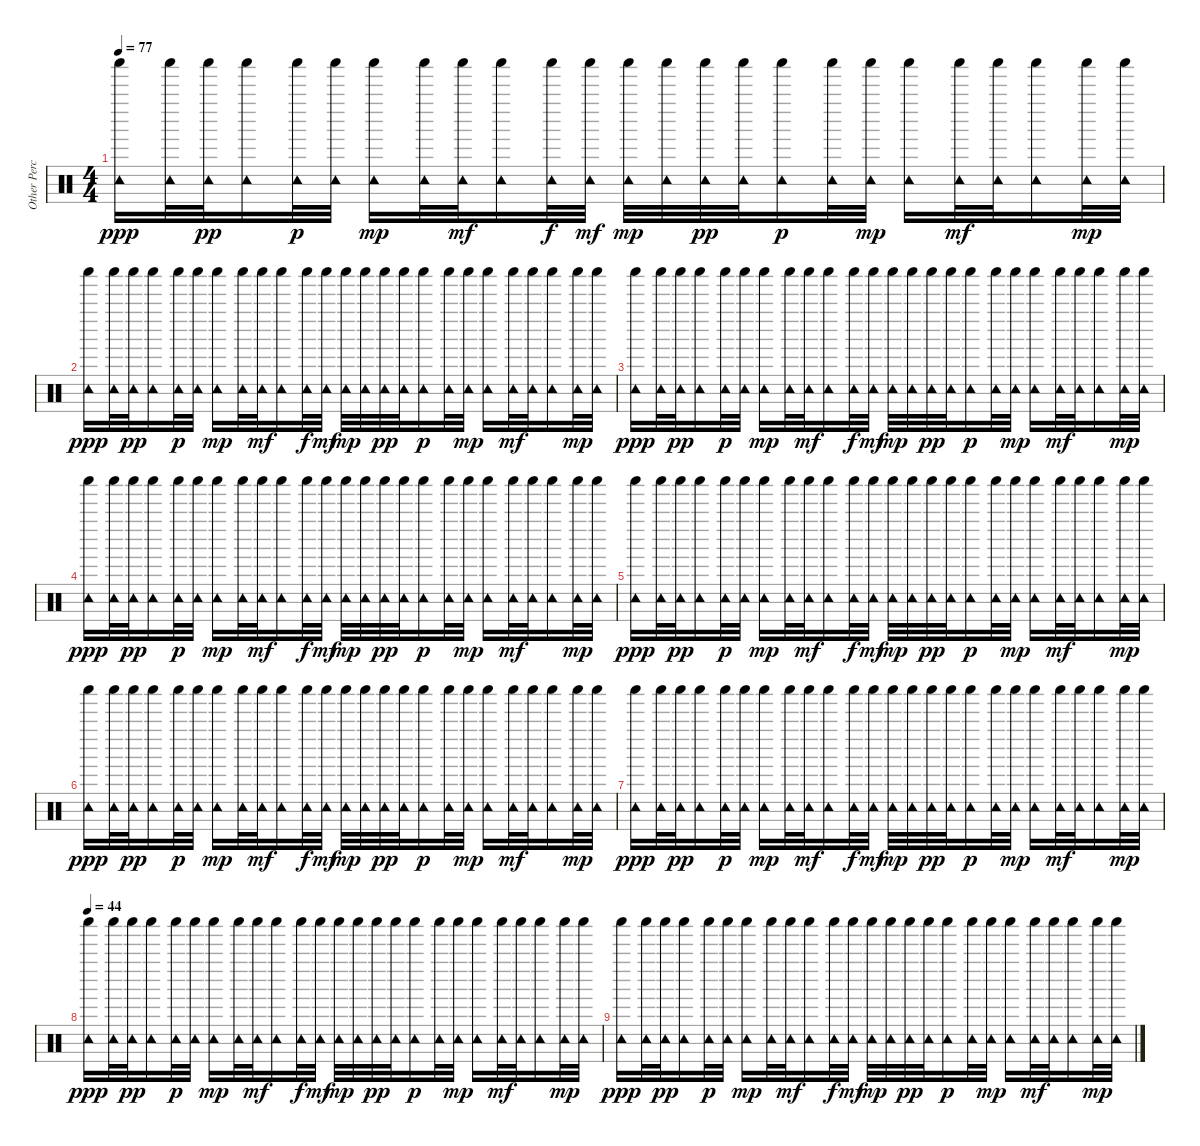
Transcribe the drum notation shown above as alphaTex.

\track ("Other Percussion" "Other Perc") {instrument percussion}
\staff {score}
\articulation defaults
\ts (4 4)
\tempo 77
\clef neutral
\ks c
("Shaker (hit)" "Tambourine (hit)").16{dy ppp} ("Shaker (hit)" "Tambourine (hit)").32 ("Shaker (hit)" "Tambourine (hit)").32{dy pp} ("Shaker (hit)" "Tambourine (hit)").16 ("Shaker (hit)" "Tambourine (hit)").32{dy p} ("Shaker (hit)" "Tambourine (hit)").32 ("Shaker (hit)" "Tambourine (hit)").16{dy mp} ("Shaker (hit)" "Tambourine (hit)").32 ("Shaker (hit)" "Tambourine (hit)").32{dy mf} ("Shaker (hit)" "Tambourine (hit)").16 ("Shaker (hit)" "Tambourine (hit)").32{dy f} ("Shaker (hit)" "Tambourine (hit)").32{dy mf} ("Shaker (hit)" "Tambourine (hit)").32{dy mp} ("Shaker (hit)" "Tambourine (hit)").32 ("Shaker (hit)" "Tambourine (hit)").32{dy pp} ("Shaker (hit)" "Tambourine (hit)").32 ("Shaker (hit)" "Tambourine (hit)").16{dy p} ("Shaker (hit)" "Tambourine (hit)").32 ("Shaker (hit)" "Tambourine (hit)").32{dy mp} ("Shaker (hit)" "Tambourine (hit)").16 ("Shaker (hit)" "Tambourine (hit)").32{dy mf} ("Shaker (hit)" "Tambourine (hit)").32 ("Shaker (hit)" "Tambourine (hit)").16 ("Shaker (hit)" "Tambourine (hit)").32{dy mp} ("Shaker (hit)" "Tambourine (hit)").32 |
("Shaker (hit)" "Tambourine (hit)").16{dy ppp} ("Shaker (hit)" "Tambourine (hit)").32 ("Shaker (hit)" "Tambourine (hit)").32{dy pp} ("Shaker (hit)" "Tambourine (hit)").16 ("Shaker (hit)" "Tambourine (hit)").32{dy p} ("Shaker (hit)" "Tambourine (hit)").32 ("Shaker (hit)" "Tambourine (hit)").16{dy mp} ("Shaker (hit)" "Tambourine (hit)").32 ("Shaker (hit)" "Tambourine (hit)").32{dy mf} ("Shaker (hit)" "Tambourine (hit)").16 ("Shaker (hit)" "Tambourine (hit)").32{dy f} ("Shaker (hit)" "Tambourine (hit)").32{dy mf} ("Shaker (hit)" "Tambourine (hit)").32{dy mp} ("Shaker (hit)" "Tambourine (hit)").32 ("Shaker (hit)" "Tambourine (hit)").32{dy pp} ("Shaker (hit)" "Tambourine (hit)").32 ("Shaker (hit)" "Tambourine (hit)").16{dy p} ("Shaker (hit)" "Tambourine (hit)").32 ("Shaker (hit)" "Tambourine (hit)").32{dy mp} ("Shaker (hit)" "Tambourine (hit)").16 ("Shaker (hit)" "Tambourine (hit)").32{dy mf} ("Shaker (hit)" "Tambourine (hit)").32 ("Shaker (hit)" "Tambourine (hit)").16 ("Shaker (hit)" "Tambourine (hit)").32{dy mp} ("Shaker (hit)" "Tambourine (hit)").32 |
("Shaker (hit)" "Tambourine (hit)").16{dy ppp} ("Shaker (hit)" "Tambourine (hit)").32 ("Shaker (hit)" "Tambourine (hit)").32{dy pp} ("Shaker (hit)" "Tambourine (hit)").16 ("Shaker (hit)" "Tambourine (hit)").32{dy p} ("Shaker (hit)" "Tambourine (hit)").32 ("Shaker (hit)" "Tambourine (hit)").16{dy mp} ("Shaker (hit)" "Tambourine (hit)").32 ("Shaker (hit)" "Tambourine (hit)").32{dy mf} ("Shaker (hit)" "Tambourine (hit)").16 ("Shaker (hit)" "Tambourine (hit)").32{dy f} ("Shaker (hit)" "Tambourine (hit)").32{dy mf} ("Shaker (hit)" "Tambourine (hit)").32{dy mp} ("Shaker (hit)" "Tambourine (hit)").32 ("Shaker (hit)" "Tambourine (hit)").32{dy pp} ("Shaker (hit)" "Tambourine (hit)").32 ("Shaker (hit)" "Tambourine (hit)").16{dy p} ("Shaker (hit)" "Tambourine (hit)").32 ("Shaker (hit)" "Tambourine (hit)").32{dy mp} ("Shaker (hit)" "Tambourine (hit)").16 ("Shaker (hit)" "Tambourine (hit)").32{dy mf} ("Shaker (hit)" "Tambourine (hit)").32 ("Shaker (hit)" "Tambourine (hit)").16 ("Shaker (hit)" "Tambourine (hit)").32{dy mp} ("Shaker (hit)" "Tambourine (hit)").32 |
("Shaker (hit)" "Tambourine (hit)").16{dy ppp} ("Shaker (hit)" "Tambourine (hit)").32 ("Shaker (hit)" "Tambourine (hit)").32{dy pp} ("Shaker (hit)" "Tambourine (hit)").16 ("Shaker (hit)" "Tambourine (hit)").32{dy p} ("Shaker (hit)" "Tambourine (hit)").32 ("Shaker (hit)" "Tambourine (hit)").16{dy mp} ("Shaker (hit)" "Tambourine (hit)").32 ("Shaker (hit)" "Tambourine (hit)").32{dy mf} ("Shaker (hit)" "Tambourine (hit)").16 ("Shaker (hit)" "Tambourine (hit)").32{dy f} ("Shaker (hit)" "Tambourine (hit)").32{dy mf} ("Shaker (hit)" "Tambourine (hit)").32{dy mp} ("Shaker (hit)" "Tambourine (hit)").32 ("Shaker (hit)" "Tambourine (hit)").32{dy pp} ("Shaker (hit)" "Tambourine (hit)").32 ("Shaker (hit)" "Tambourine (hit)").16{dy p} ("Shaker (hit)" "Tambourine (hit)").32 ("Shaker (hit)" "Tambourine (hit)").32{dy mp} ("Shaker (hit)" "Tambourine (hit)").16 ("Shaker (hit)" "Tambourine (hit)").32{dy mf} ("Shaker (hit)" "Tambourine (hit)").32 ("Shaker (hit)" "Tambourine (hit)").16 ("Shaker (hit)" "Tambourine (hit)").32{dy mp} ("Shaker (hit)" "Tambourine (hit)").32 |
("Shaker (hit)" "Tambourine (hit)").16{dy ppp} ("Shaker (hit)" "Tambourine (hit)").32 ("Shaker (hit)" "Tambourine (hit)").32{dy pp} ("Shaker (hit)" "Tambourine (hit)").16 ("Shaker (hit)" "Tambourine (hit)").32{dy p} ("Shaker (hit)" "Tambourine (hit)").32 ("Shaker (hit)" "Tambourine (hit)").16{dy mp} ("Shaker (hit)" "Tambourine (hit)").32 ("Shaker (hit)" "Tambourine (hit)").32{dy mf} ("Shaker (hit)" "Tambourine (hit)").16 ("Shaker (hit)" "Tambourine (hit)").32{dy f} ("Shaker (hit)" "Tambourine (hit)").32{dy mf} ("Shaker (hit)" "Tambourine (hit)").32{dy mp} ("Shaker (hit)" "Tambourine (hit)").32 ("Shaker (hit)" "Tambourine (hit)").32{dy pp} ("Shaker (hit)" "Tambourine (hit)").32 ("Shaker (hit)" "Tambourine (hit)").16{dy p} ("Shaker (hit)" "Tambourine (hit)").32 ("Shaker (hit)" "Tambourine (hit)").32{dy mp} ("Shaker (hit)" "Tambourine (hit)").16 ("Shaker (hit)" "Tambourine (hit)").32{dy mf} ("Shaker (hit)" "Tambourine (hit)").32 ("Shaker (hit)" "Tambourine (hit)").16 ("Shaker (hit)" "Tambourine (hit)").32{dy mp} ("Shaker (hit)" "Tambourine (hit)").32 |
("Shaker (hit)" "Tambourine (hit)").16{dy ppp} ("Shaker (hit)" "Tambourine (hit)").32 ("Shaker (hit)" "Tambourine (hit)").32{dy pp} ("Shaker (hit)" "Tambourine (hit)").16 ("Shaker (hit)" "Tambourine (hit)").32{dy p} ("Shaker (hit)" "Tambourine (hit)").32 ("Shaker (hit)" "Tambourine (hit)").16{dy mp} ("Shaker (hit)" "Tambourine (hit)").32 ("Shaker (hit)" "Tambourine (hit)").32{dy mf} ("Shaker (hit)" "Tambourine (hit)").16 ("Shaker (hit)" "Tambourine (hit)").32{dy f} ("Shaker (hit)" "Tambourine (hit)").32{dy mf} ("Shaker (hit)" "Tambourine (hit)").32{dy mp} ("Shaker (hit)" "Tambourine (hit)").32 ("Shaker (hit)" "Tambourine (hit)").32{dy pp} ("Shaker (hit)" "Tambourine (hit)").32 ("Shaker (hit)" "Tambourine (hit)").16{dy p} ("Shaker (hit)" "Tambourine (hit)").32 ("Shaker (hit)" "Tambourine (hit)").32{dy mp} ("Shaker (hit)" "Tambourine (hit)").16 ("Shaker (hit)" "Tambourine (hit)").32{dy mf} ("Shaker (hit)" "Tambourine (hit)").32 ("Shaker (hit)" "Tambourine (hit)").16 ("Shaker (hit)" "Tambourine (hit)").32{dy mp} ("Shaker (hit)" "Tambourine (hit)").32 |
("Shaker (hit)" "Tambourine (hit)").16{dy ppp} ("Shaker (hit)" "Tambourine (hit)").32 ("Shaker (hit)" "Tambourine (hit)").32{dy pp} ("Shaker (hit)" "Tambourine (hit)").16 ("Shaker (hit)" "Tambourine (hit)").32{dy p} ("Shaker (hit)" "Tambourine (hit)").32 ("Shaker (hit)" "Tambourine (hit)").16{dy mp} ("Shaker (hit)" "Tambourine (hit)").32 ("Shaker (hit)" "Tambourine (hit)").32{dy mf} ("Shaker (hit)" "Tambourine (hit)").16 ("Shaker (hit)" "Tambourine (hit)").32{dy f} ("Shaker (hit)" "Tambourine (hit)").32{dy mf} ("Shaker (hit)" "Tambourine (hit)").32{dy mp} ("Shaker (hit)" "Tambourine (hit)").32 ("Shaker (hit)" "Tambourine (hit)").32{dy pp} ("Shaker (hit)" "Tambourine (hit)").32 ("Shaker (hit)" "Tambourine (hit)").16{dy p} ("Shaker (hit)" "Tambourine (hit)").32 ("Shaker (hit)" "Tambourine (hit)").32{dy mp} ("Shaker (hit)" "Tambourine (hit)").16 ("Shaker (hit)" "Tambourine (hit)").32{dy mf} ("Shaker (hit)" "Tambourine (hit)").32 ("Shaker (hit)" "Tambourine (hit)").16 ("Shaker (hit)" "Tambourine (hit)").32{dy mp} ("Shaker (hit)" "Tambourine (hit)").32 |
\tempo 44
("Shaker (hit)" "Tambourine (hit)").16{dy ppp} ("Shaker (hit)" "Tambourine (hit)").32 ("Shaker (hit)" "Tambourine (hit)").32{dy pp} ("Shaker (hit)" "Tambourine (hit)").16 ("Shaker (hit)" "Tambourine (hit)").32{dy p} ("Shaker (hit)" "Tambourine (hit)").32 ("Shaker (hit)" "Tambourine (hit)").16{dy mp} ("Shaker (hit)" "Tambourine (hit)").32 ("Shaker (hit)" "Tambourine (hit)").32{dy mf} ("Shaker (hit)" "Tambourine (hit)").16 ("Shaker (hit)" "Tambourine (hit)").32{dy f} ("Shaker (hit)" "Tambourine (hit)").32{dy mf} ("Shaker (hit)" "Tambourine (hit)").32{dy mp} ("Shaker (hit)" "Tambourine (hit)").32 ("Shaker (hit)" "Tambourine (hit)").32{dy pp} ("Shaker (hit)" "Tambourine (hit)").32 ("Shaker (hit)" "Tambourine (hit)").16{dy p} ("Shaker (hit)" "Tambourine (hit)").32 ("Shaker (hit)" "Tambourine (hit)").32{dy mp} ("Shaker (hit)" "Tambourine (hit)").16 ("Shaker (hit)" "Tambourine (hit)").32{dy mf} ("Shaker (hit)" "Tambourine (hit)").32 ("Shaker (hit)" "Tambourine (hit)").16 ("Shaker (hit)" "Tambourine (hit)").32{dy mp} ("Shaker (hit)" "Tambourine (hit)").32 |
("Shaker (hit)" "Tambourine (hit)").16{dy ppp} ("Shaker (hit)" "Tambourine (hit)").32 ("Shaker (hit)" "Tambourine (hit)").32{dy pp} ("Shaker (hit)" "Tambourine (hit)").16 ("Shaker (hit)" "Tambourine (hit)").32{dy p} ("Shaker (hit)" "Tambourine (hit)").32 ("Shaker (hit)" "Tambourine (hit)").16{dy mp} ("Shaker (hit)" "Tambourine (hit)").32 ("Shaker (hit)" "Tambourine (hit)").32{dy mf} ("Shaker (hit)" "Tambourine (hit)").16 ("Shaker (hit)" "Tambourine (hit)").32{dy f} ("Shaker (hit)" "Tambourine (hit)").32{dy mf} ("Shaker (hit)" "Tambourine (hit)").32{dy mp} ("Shaker (hit)" "Tambourine (hit)").32 ("Shaker (hit)" "Tambourine (hit)").32{dy pp} ("Shaker (hit)" "Tambourine (hit)").32 ("Shaker (hit)" "Tambourine (hit)").16{dy p} ("Shaker (hit)" "Tambourine (hit)").32 ("Shaker (hit)" "Tambourine (hit)").32{dy mp} ("Shaker (hit)" "Tambourine (hit)").16 ("Shaker (hit)" "Tambourine (hit)").32{dy mf} ("Shaker (hit)" "Tambourine (hit)").32 ("Shaker (hit)" "Tambourine (hit)").16 ("Shaker (hit)" "Tambourine (hit)").32{dy mp} ("Shaker (hit)" "Tambourine (hit)").32
